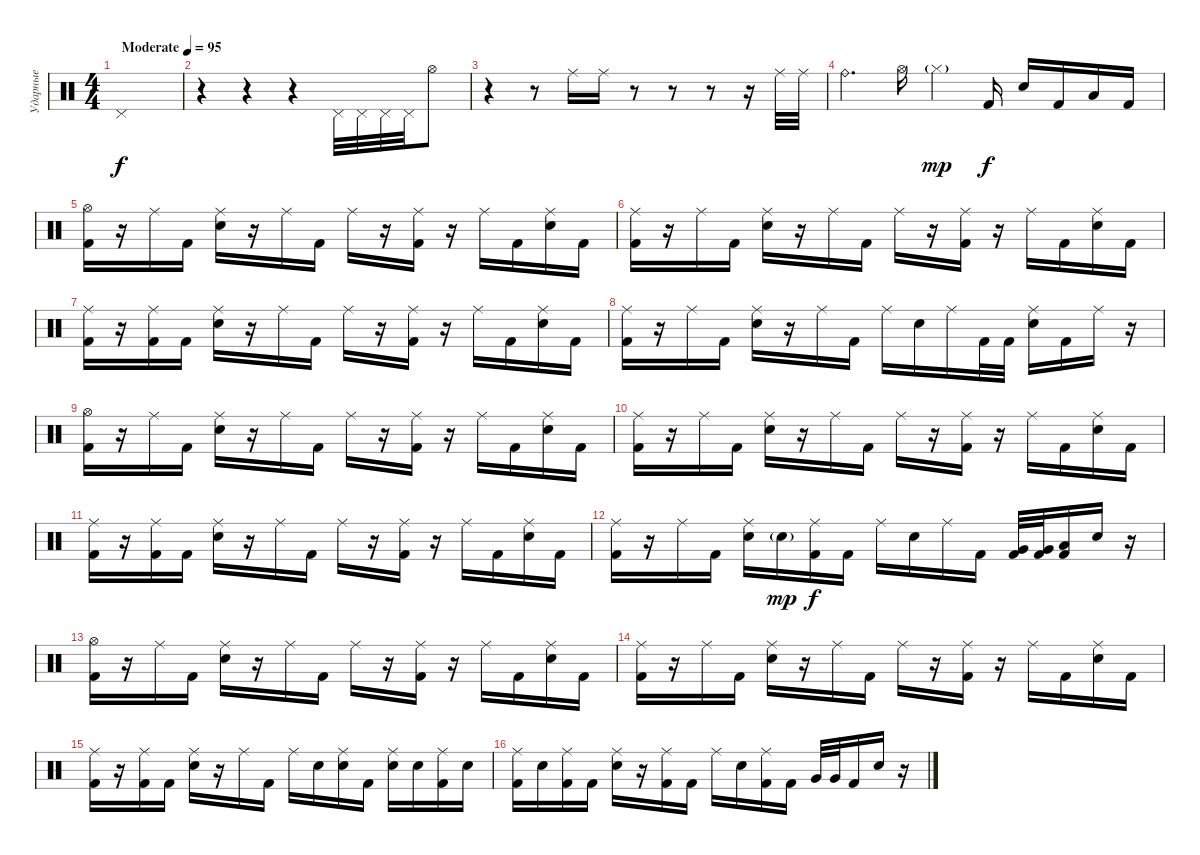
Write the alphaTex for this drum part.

\track ("Ударные" "Ударные") {instrument percussion}
\staff {score}
\articulation defaults
\ts (4 4)
\tempo (95 "Moderate")
\clef neutral
\ks c "Pedal Hi-Hat (hit)".1{dy f}
|
r.4 r.4 r.4 "Pedal Hi-Hat (hit)".32 "Pedal Hi-Hat (hit)".32 "Pedal Hi-Hat (hit)".32 "Pedal Hi-Hat (hit)".32 "Hi-Hat (open)".8 |
r.4 r.8 "Ride (middle)".16 "Ride (middle)".16 r.8 r.8 r.8 r.16 "Ride (middle)".32 "Ride (middle)".32 |
"Ride (bell)".4{d} "Hi-Hat (open)".16 "Hi-Hat (closed)"{g}.4{dy mp} "Kick (hit) 2".16{dy f} "Electric Snare (hit)".16 "Kick (hit) 2".16 "Low Floor Tom (hit)".16 "Kick (hit) 2".16 |
("Hi-Hat (open)" "Kick (hit) 2").16 r.16 "Ride (middle)".16 "Kick (hit) 2".16 ("Ride (middle)" "Electric Snare (hit)").16 r.16 "Ride (middle)".16 "Kick (hit) 2".16 "Ride (middle)".16 r.16 ("Ride (middle)" "Kick (hit) 2").16 r.16 "Ride (middle)".16 "Kick (hit) 2".16 ("Ride (middle)" "Electric Snare (hit)").16 "Kick (hit) 2".16 |
("Ride (middle)" "Kick (hit) 2").16 r.16 "Ride (middle)".16 "Kick (hit) 2".16 ("Ride (middle)" "Electric Snare (hit)").16 r.16 "Ride (middle)".16 "Kick (hit) 2".16 "Ride (middle)".16 r.16 ("Ride (middle)" "Kick (hit) 2").16 r.16 "Ride (middle)".16 "Kick (hit) 2".16 ("Ride (middle)" "Electric Snare (hit)").16 "Kick (hit) 2".16 |
("Ride (middle)" "Kick (hit) 2").16 r.16 ("Ride (middle)" "Kick (hit) 2").16 "Kick (hit) 2".16 ("Ride (middle)" "Electric Snare (hit)").16 r.16 "Ride (middle)".16 "Kick (hit) 2".16 "Ride (middle)".16 r.16 ("Ride (middle)" "Kick (hit) 2").16 r.16 "Ride (middle)".16 "Kick (hit) 2".16 ("Ride (middle)" "Electric Snare (hit)").16 "Kick (hit) 2".16 |
("Ride (middle)" "Kick (hit) 2").16 r.16 "Ride (middle)".16 "Kick (hit) 2".16 ("Ride (middle)" "Electric Snare (hit)").16 r.16 "Ride (middle)".16 "Kick (hit) 2".16 "Ride (middle)".16 "Electric Snare (hit)".16 "Ride (middle)".16 "Kick (hit) 2".32 "Kick (hit) 2".32 ("Ride (middle)" "Electric Snare (hit)").16 "Kick (hit) 2".16 "Ride (middle)".16 r.16 |
("Hi-Hat (open)" "Kick (hit) 2").16 r.16 "Ride (middle)".16 "Kick (hit) 2".16 ("Ride (middle)" "Electric Snare (hit)").16 r.16 "Ride (middle)".16 "Kick (hit) 2".16 "Ride (middle)".16 r.16 ("Ride (middle)" "Kick (hit) 2").16 r.16 "Ride (middle)".16 "Kick (hit) 2".16 ("Ride (middle)" "Electric Snare (hit)").16 "Kick (hit) 2".16 |
("Ride (middle)" "Kick (hit) 2").16 r.16 "Ride (middle)".16 "Kick (hit) 2".16 ("Ride (middle)" "Electric Snare (hit)").16 r.16 "Ride (middle)".16 "Kick (hit) 2".16 "Ride (middle)".16 r.16 ("Ride (middle)" "Kick (hit) 2").16 r.16 "Ride (middle)".16 "Kick (hit) 2".16 ("Ride (middle)" "Electric Snare (hit)").16 "Kick (hit) 2".16 |
("Ride (middle)" "Kick (hit) 2").16 r.16 ("Ride (middle)" "Kick (hit) 2").16 "Kick (hit) 2".16 ("Ride (middle)" "Electric Snare (hit)").16 r.16 "Ride (middle)".16 "Kick (hit) 2".16 "Ride (middle)".16 r.16 ("Ride (middle)" "Kick (hit) 2").16 r.16 "Ride (middle)".16 "Kick (hit) 2".16 ("Ride (middle)" "Electric Snare (hit)").16 "Kick (hit) 2".16 |
("Ride (middle)" "Kick (hit) 2").16 r.16 "Ride (middle)".16 "Kick (hit) 2".16 ("Ride (middle)" "Electric Snare (hit)").16 "Electric Snare (hit)"{g}.16{dy mp} ("Ride (middle)" "Kick (hit) 2").16{dy f} "Kick (hit) 2".16 "Ride (middle)".16 "Electric Snare (hit)".16 "Ride (middle)".16 "Kick (hit) 2".16 ("Very Low Tom (hit)" "Kick (hit) 2").32 ("Very Low Tom (hit)" "Kick (hit) 2").32 ("Low Floor Tom (hit)" "Kick (hit) 2").16 "Electric Snare (hit)".16 r.16 |
("Hi-Hat (open)" "Kick (hit) 2").16 r.16 "Ride (middle)".16 "Kick (hit) 2".16 ("Ride (middle)" "Electric Snare (hit)").16 r.16 "Ride (middle)".16 "Kick (hit) 2".16 "Ride (middle)".16 r.16 ("Ride (middle)" "Kick (hit) 2").16 r.16 "Ride (middle)".16 "Kick (hit) 2".16 ("Ride (middle)" "Electric Snare (hit)").16 "Kick (hit) 2".16 |
("Ride (middle)" "Kick (hit) 2").16 r.16 "Ride (middle)".16 "Kick (hit) 2".16 ("Ride (middle)" "Electric Snare (hit)").16 r.16 "Ride (middle)".16 "Kick (hit) 2".16 "Ride (middle)".16 r.16 ("Ride (middle)" "Kick (hit) 2").16 r.16 "Ride (middle)".16 "Kick (hit) 2".16 ("Ride (middle)" "Electric Snare (hit)").16 "Kick (hit) 2".16 |
("Ride (middle)" "Kick (hit) 2").16 r.16 ("Ride (middle)" "Kick (hit) 2").16 "Kick (hit) 2".16 ("Ride (middle)" "Electric Snare (hit)").16 r.16 "Ride (middle)".16 "Kick (hit) 2".16 "Ride (middle)".16 "Electric Snare (hit)".16 ("Ride (middle)" "Electric Snare (hit)").16 "Kick (hit) 2".16 ("Ride (middle)" "Electric Snare (hit)").16 "Electric Snare (hit)".16 ("Ride (middle)" "Kick (hit) 2").16 "Electric Snare (hit)".16 |
("Ride (middle)" "Kick (hit) 2").16 "Electric Snare (hit)".16 ("Ride (middle)" "Kick (hit) 2").16 "Kick (hit) 2".16 ("Ride (middle)" "Electric Snare (hit)").16 r.16 ("Ride (middle)" "Kick (hit) 2").16 "Kick (hit) 2".16 "Ride (middle)".16 "Electric Snare (hit)".16 ("Ride (middle)" "Kick (hit) 2").16 "Kick (hit) 2".16 "Very Low Tom (hit)".32 "Very Low Tom (hit)".32 "Kick (hit) 2".16 "Electric Snare (hit)".16 r.16
